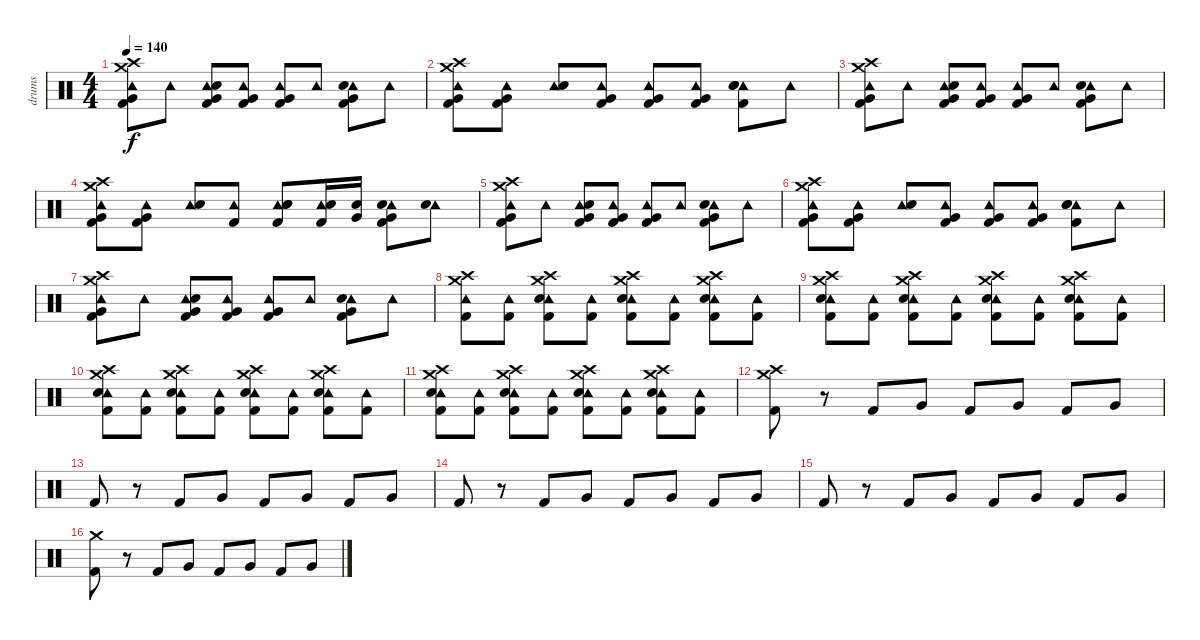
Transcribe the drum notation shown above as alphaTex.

\track ("drums" "drums") {instrument percussion}
\staff {score}
\articulation defaults
\ts (4 4)
\tempo 140
\clef neutral
\ks c
("Crash high (hit)" "Tambourine (hit)" "Crash medium (hit)" "Very Low Tom (hit)" "Kick (hit) 2").8{dy f} "Tambourine (hit)".8 ("Tambourine (hit)" "Snare (hit) 2" "Very Low Tom (hit)" "Kick (hit) 2").8 ("Tambourine (hit)" "Very Low Tom (hit)" "Kick (hit) 2").8 ("Tambourine (hit)" "Very Low Tom (hit)" "Kick (hit) 2").8 "Tambourine (hit)".8 ("Tambourine (hit)" "Snare (hit) 2" "Very Low Tom (hit)" "Kick (hit) 2").8 "Tambourine (hit)".8 |
("Crash high (hit)" "Tambourine (hit)" "Crash medium (hit)" "Very Low Tom (hit)" "Kick (hit) 2").8 ("Tambourine (hit)" "Very Low Tom (hit)" "Kick (hit) 2").8 ("Tambourine (hit)" "Snare (hit) 2").8 ("Tambourine (hit)" "Very Low Tom (hit)" "Kick (hit) 2").8 ("Tambourine (hit)" "Very Low Tom (hit)" "Kick (hit) 2").8 ("Tambourine (hit)" "Very Low Tom (hit)" "Kick (hit) 2").8 ("Tambourine (hit)" "Snare (hit) 2" "Snare (hit) 2" "Kick (hit) 2").8 "Tambourine (hit)".8 |
("Crash high (hit)" "Tambourine (hit)" "Crash medium (hit)" "Very Low Tom (hit)" "Kick (hit) 2").8 "Tambourine (hit)".8 ("Tambourine (hit)" "Snare (hit) 2" "Very Low Tom (hit)" "Kick (hit) 2").8 ("Tambourine (hit)" "Very Low Tom (hit)" "Kick (hit) 2").8 ("Tambourine (hit)" "Very Low Tom (hit)" "Kick (hit) 2").8 "Tambourine (hit)".8 ("Tambourine (hit)" "Snare (hit) 2" "Very Low Tom (hit)" "Kick (hit) 2").8 "Tambourine (hit)".8 |
("Crash high (hit)" "Tambourine (hit)" "Crash medium (hit)" "Very Low Tom (hit)" "Kick (hit) 2").8 ("Tambourine (hit)" "Very Low Tom (hit)" "Kick (hit) 2").8 ("Tambourine (hit)" "Snare (hit) 2").8 ("Tambourine (hit)" "Kick (hit) 2").8 ("Tambourine (hit)" "Snare (hit) 2" "Snare (hit) 2" "Kick (hit) 2").8 ("Tambourine (hit)" "Snare (hit) 2" "Kick (hit) 2").16 ("Snare (hit) 2" "Very Low Tom (hit)").16 ("Tambourine (hit)" "Snare (hit) 2" "Very Low Tom (hit)" "Kick (hit) 2").8 ("Tambourine (hit)" "Snare (hit) 2").8 |
("Crash high (hit)" "Tambourine (hit)" "Crash medium (hit)" "Very Low Tom (hit)" "Kick (hit) 2").8 "Tambourine (hit)".8 ("Tambourine (hit)" "Snare (hit) 2" "Very Low Tom (hit)" "Kick (hit) 2").8 ("Tambourine (hit)" "Very Low Tom (hit)" "Kick (hit) 2").8 ("Tambourine (hit)" "Very Low Tom (hit)" "Kick (hit) 2").8 "Tambourine (hit)".8 ("Tambourine (hit)" "Snare (hit) 2" "Very Low Tom (hit)" "Kick (hit) 2").8 "Tambourine (hit)".8 |
("Crash high (hit)" "Tambourine (hit)" "Crash medium (hit)" "Very Low Tom (hit)" "Kick (hit) 2").8 ("Tambourine (hit)" "Very Low Tom (hit)" "Kick (hit) 2").8 ("Tambourine (hit)" "Snare (hit) 2").8 ("Tambourine (hit)" "Very Low Tom (hit)" "Kick (hit) 2").8 ("Tambourine (hit)" "Very Low Tom (hit)" "Kick (hit) 2").8 ("Tambourine (hit)" "Very Low Tom (hit)" "Kick (hit) 2").8 ("Tambourine (hit)" "Snare (hit) 2" "Snare (hit) 2" "Kick (hit) 2").8 "Tambourine (hit)".8 |
("Crash high (hit)" "Tambourine (hit)" "Crash medium (hit)" "Very Low Tom (hit)" "Kick (hit) 2").8 "Tambourine (hit)".8 ("Tambourine (hit)" "Snare (hit) 2" "Very Low Tom (hit)" "Kick (hit) 2").8 ("Tambourine (hit)" "Very Low Tom (hit)" "Kick (hit) 2").8 ("Tambourine (hit)" "Very Low Tom (hit)" "Kick (hit) 2").8 "Tambourine (hit)".8 ("Tambourine (hit)" "Snare (hit) 2" "Very Low Tom (hit)" "Kick (hit) 2").8 "Tambourine (hit)".8 |
("Crash high (hit)" "Tambourine (hit)" "Crash medium (hit)" "Kick (hit) 2").8 ("Tambourine (hit)" "Kick (hit) 2").8 ("Crash high (hit)" "Tambourine (hit)" "Crash medium (hit)" "Snare (hit) 2" "Kick (hit) 2").8 ("Tambourine (hit)" "Kick (hit) 2").8 ("Crash high (hit)" "Tambourine (hit)" "Crash medium (hit)" "Snare (hit) 2" "Kick (hit) 2").8 ("Tambourine (hit)" "Kick (hit) 2").8 ("Crash high (hit)" "Tambourine (hit)" "Crash medium (hit)" "Snare (hit) 2" "Kick (hit) 2").8 ("Tambourine (hit)" "Kick (hit) 2").8 |
("Crash high (hit)" "Tambourine (hit)" "Crash medium (hit)" "Snare (hit) 2" "Kick (hit) 2").8 ("Tambourine (hit)" "Kick (hit) 2").8 ("Crash high (hit)" "Tambourine (hit)" "Crash medium (hit)" "Snare (hit) 2" "Kick (hit) 2").8 ("Tambourine (hit)" "Kick (hit) 2").8 ("Crash high (hit)" "Tambourine (hit)" "Crash medium (hit)" "Snare (hit) 2" "Kick (hit) 2").8 ("Tambourine (hit)" "Kick (hit) 2").8 ("Crash high (hit)" "Tambourine (hit)" "Crash medium (hit)" "Snare (hit) 2" "Kick (hit) 2").8 ("Tambourine (hit)" "Kick (hit) 2").8 |
("Crash high (hit)" "Tambourine (hit)" "Crash medium (hit)" "Snare (hit) 2" "Kick (hit) 2").8 ("Tambourine (hit)" "Kick (hit) 2").8 ("Crash high (hit)" "Tambourine (hit)" "Crash medium (hit)" "Snare (hit) 2" "Kick (hit) 2").8 ("Tambourine (hit)" "Kick (hit) 2").8 ("Crash high (hit)" "Tambourine (hit)" "Crash medium (hit)" "Snare (hit) 2" "Kick (hit) 2").8 ("Tambourine (hit)" "Kick (hit) 2").8 ("Crash high (hit)" "Tambourine (hit)" "Crash medium (hit)" "Snare (hit) 2" "Kick (hit) 2").8 ("Tambourine (hit)" "Kick (hit) 2").8 |
("Crash high (hit)" "Tambourine (hit)" "Crash medium (hit)" "Snare (hit) 2" "Kick (hit) 2").8 ("Tambourine (hit)" "Kick (hit) 2").8 ("Crash high (hit)" "Tambourine (hit)" "Crash medium (hit)" "Snare (hit) 2" "Kick (hit) 2").8 ("Tambourine (hit)" "Kick (hit) 2").8 ("Crash high (hit)" "Tambourine (hit)" "Crash medium (hit)" "Snare (hit) 2" "Kick (hit) 2").8 ("Tambourine (hit)" "Kick (hit) 2").8 ("Crash high (hit)" "Tambourine (hit)" "Crash medium (hit)" "Snare (hit) 2" "Kick (hit) 2").8 ("Tambourine (hit)" "Kick (hit) 2").8 |
("Crash high (hit)" "Crash medium (hit)" "Kick (hit) 2").8 r.8 "Kick (hit) 2".8 "Very Low Tom (hit)".8 "Kick (hit) 2".8 "Very Low Tom (hit)".8 "Kick (hit) 2".8 "Very Low Tom (hit)".8 |
"Kick (hit) 2".8 r.8 "Kick (hit) 2".8 "Very Low Tom (hit)".8 "Kick (hit) 2".8 "Very Low Tom (hit)".8 "Kick (hit) 2".8 "Very Low Tom (hit)".8 |
"Kick (hit) 2".8 r.8 "Kick (hit) 2".8 "Very Low Tom (hit)".8 "Kick (hit) 2".8 "Very Low Tom (hit)".8 "Kick (hit) 2".8 "Very Low Tom (hit)".8 |
"Kick (hit) 2".8 r.8 "Kick (hit) 2".8 "Very Low Tom (hit)".8 "Kick (hit) 2".8 "Very Low Tom (hit)".8 "Kick (hit) 2".8 "Very Low Tom (hit)".8 |
("Crash medium (hit)" "Kick (hit) 2").8 r.8 "Kick (hit) 2".8 "Very Low Tom (hit)".8 "Kick (hit) 2".8 "Very Low Tom (hit)".8 "Kick (hit) 2".8 "Very Low Tom (hit)".8
